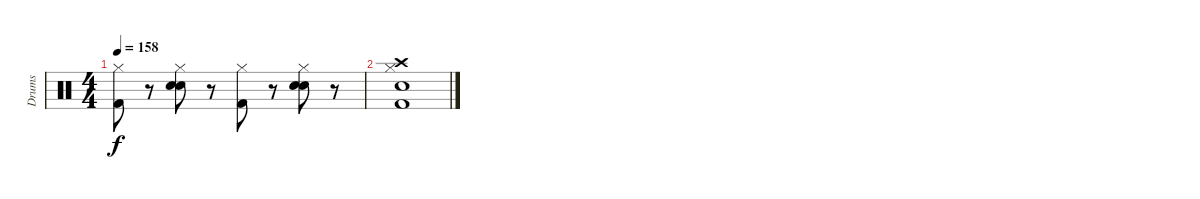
\track ("Drums" "Drums") {instrument percussion}
\staff {score}
\articulation defaults
\ts (4 4)
\tempo 158
\clef neutral
\ks c
("Hi-Hat (closed)" "Kick (hit) 2").8{dy f} r.8 ("Hi-Hat (closed)" "Snare (hit) 2" "Snare (hit) 2").8 r.8 ("Hi-Hat (closed)" "Kick (hit) 2").8 r.8 ("Hi-Hat (closed)" "Snare (hit) 2" "Snare (hit) 2").8 r.8 |
("Hi-Hat (closed)" "Crash high (hit)" "Snare (hit) 2" "Kick (hit) 2").1
